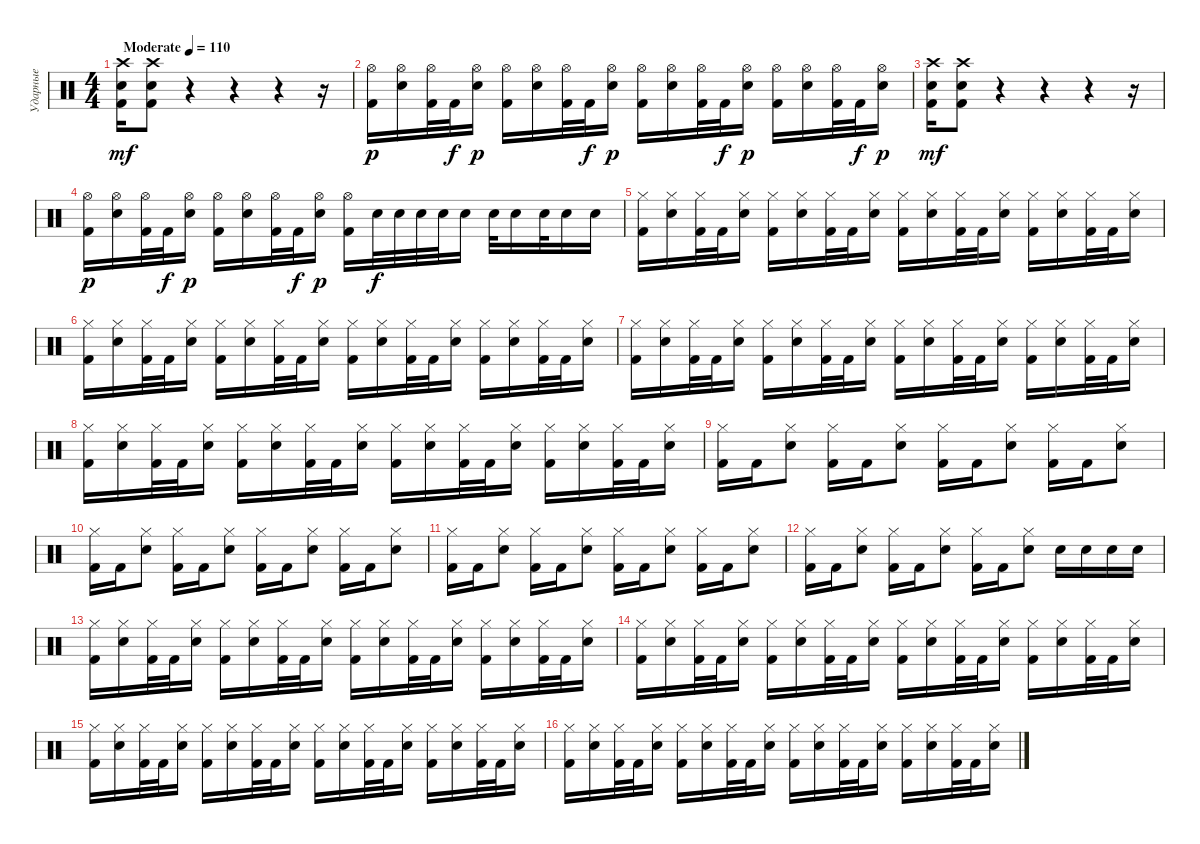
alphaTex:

\track ("Ударные" "Ударные") {instrument percussion}
\staff {score}
\articulation defaults
\ts (4 4)
\tempo (110 "Moderate")
\clef neutral
\ks c
("Crash high (hit)" "Electric Snare (hit)" "Kick (hit) 2").16{dy mf} ("Crash high (hit)" "Electric Snare (hit)" "Kick (hit) 2").8 r.4 r.4 r.4 r.16 |
("Hi-Hat (open)" "Kick (hit) 2").16{dy p} ("Hi-Hat (open)" "Electric Snare (hit)").16 ("Hi-Hat (open)" "Kick (hit) 2").32 "Kick (hit) 2".32{dy f} ("Hi-Hat (open)" "Electric Snare (hit)").16{dy p} ("Hi-Hat (open)" "Kick (hit) 2").16 ("Hi-Hat (open)" "Electric Snare (hit)").16 ("Hi-Hat (open)" "Kick (hit) 2").32 "Kick (hit) 2".32{dy f} ("Hi-Hat (open)" "Electric Snare (hit)").16{dy p} ("Hi-Hat (open)" "Kick (hit) 2").16 ("Hi-Hat (open)" "Electric Snare (hit)").16 ("Hi-Hat (open)" "Kick (hit) 2").32 "Kick (hit) 2".32{dy f} ("Hi-Hat (open)" "Electric Snare (hit)").16{dy p} ("Hi-Hat (open)" "Kick (hit) 2").16 ("Hi-Hat (open)" "Electric Snare (hit)").16 ("Hi-Hat (open)" "Kick (hit) 2").32 "Kick (hit) 2".32{dy f} ("Hi-Hat (open)" "Electric Snare (hit)").16{dy p} |
("Crash high (hit)" "Electric Snare (hit)" "Kick (hit) 2").16{dy mf} ("Crash high (hit)" "Electric Snare (hit)" "Kick (hit) 2").8 r.4 r.4 r.4 r.16 |
("Hi-Hat (open)" "Kick (hit) 2").16{dy p} ("Hi-Hat (open)" "Electric Snare (hit)").16 ("Hi-Hat (open)" "Kick (hit) 2").32 "Kick (hit) 2".32{dy f} ("Hi-Hat (open)" "Electric Snare (hit)").16{dy p} ("Hi-Hat (open)" "Kick (hit) 2").16 ("Hi-Hat (open)" "Electric Snare (hit)").16 ("Hi-Hat (open)" "Kick (hit) 2").32 "Kick (hit) 2".32{dy f} ("Hi-Hat (open)" "Electric Snare (hit)").16{dy p} ("Hi-Hat (open)" "Kick (hit) 2").16 "Electric Snare (hit)".32{dy f} "Electric Snare (hit)".32 "Electric Snare (hit)".32 "Electric Snare (hit)".32 "Electric Snare (hit)".16 "Electric Snare (hit)".32 "Electric Snare (hit)".16 "Electric Snare (hit)".32 "Electric Snare (hit)".16 "Electric Snare (hit)".16 |
("Hi-Hat (closed)" "Kick (hit) 2").16 ("Hi-Hat (closed)" "Electric Snare (hit)").16 ("Hi-Hat (closed)" "Kick (hit) 2").32 "Kick (hit) 2".32 ("Hi-Hat (closed)" "Electric Snare (hit)").16 ("Hi-Hat (closed)" "Kick (hit) 2").16 ("Hi-Hat (closed)" "Electric Snare (hit)").16 ("Hi-Hat (closed)" "Kick (hit) 2").32 "Kick (hit) 2".32 ("Hi-Hat (closed)" "Electric Snare (hit)").16 ("Hi-Hat (closed)" "Kick (hit) 2").16 ("Hi-Hat (closed)" "Electric Snare (hit)").16 ("Hi-Hat (closed)" "Kick (hit) 2").32 "Kick (hit) 2".32 ("Hi-Hat (closed)" "Electric Snare (hit)").16 ("Hi-Hat (closed)" "Kick (hit) 2").16 ("Hi-Hat (closed)" "Electric Snare (hit)").16 ("Hi-Hat (closed)" "Kick (hit) 2").32 "Kick (hit) 2".32 ("Hi-Hat (closed)" "Electric Snare (hit)").16 |
("Hi-Hat (closed)" "Kick (hit) 2").16 ("Hi-Hat (closed)" "Electric Snare (hit)").16 ("Hi-Hat (closed)" "Kick (hit) 2").32 "Kick (hit) 2".32 ("Hi-Hat (closed)" "Electric Snare (hit)").16 ("Hi-Hat (closed)" "Kick (hit) 2").16 ("Hi-Hat (closed)" "Electric Snare (hit)").16 ("Hi-Hat (closed)" "Kick (hit) 2").32 "Kick (hit) 2".32 ("Hi-Hat (closed)" "Electric Snare (hit)").16 ("Hi-Hat (closed)" "Kick (hit) 2").16 ("Hi-Hat (closed)" "Electric Snare (hit)").16 ("Hi-Hat (closed)" "Kick (hit) 2").32 "Kick (hit) 2".32 ("Hi-Hat (closed)" "Electric Snare (hit)").16 ("Hi-Hat (closed)" "Kick (hit) 2").16 ("Hi-Hat (closed)" "Electric Snare (hit)").16 ("Hi-Hat (closed)" "Kick (hit) 2").32 "Kick (hit) 2".32 ("Hi-Hat (closed)" "Electric Snare (hit)").16 |
("Hi-Hat (closed)" "Kick (hit) 2").16 ("Hi-Hat (closed)" "Electric Snare (hit)").16 ("Hi-Hat (closed)" "Kick (hit) 2").32 "Kick (hit) 2".32 ("Hi-Hat (closed)" "Electric Snare (hit)").16 ("Hi-Hat (closed)" "Kick (hit) 2").16 ("Hi-Hat (closed)" "Electric Snare (hit)").16 ("Hi-Hat (closed)" "Kick (hit) 2").32 "Kick (hit) 2".32 ("Hi-Hat (closed)" "Electric Snare (hit)").16 ("Hi-Hat (closed)" "Kick (hit) 2").16 ("Hi-Hat (closed)" "Electric Snare (hit)").16 ("Hi-Hat (closed)" "Kick (hit) 2").32 "Kick (hit) 2".32 ("Hi-Hat (closed)" "Electric Snare (hit)").16 ("Hi-Hat (closed)" "Kick (hit) 2").16 ("Hi-Hat (closed)" "Electric Snare (hit)").16 ("Hi-Hat (closed)" "Kick (hit) 2").32 "Kick (hit) 2".32 ("Hi-Hat (closed)" "Electric Snare (hit)").16 |
("Hi-Hat (closed)" "Kick (hit) 2").16 ("Hi-Hat (closed)" "Electric Snare (hit)").16 ("Hi-Hat (closed)" "Kick (hit) 2").32 "Kick (hit) 2".32 ("Hi-Hat (closed)" "Electric Snare (hit)").16 ("Hi-Hat (closed)" "Kick (hit) 2").16 ("Hi-Hat (closed)" "Electric Snare (hit)").16 ("Hi-Hat (closed)" "Kick (hit) 2").32 "Kick (hit) 2".32 ("Hi-Hat (closed)" "Electric Snare (hit)").16 ("Hi-Hat (closed)" "Kick (hit) 2").16 ("Hi-Hat (closed)" "Electric Snare (hit)").16 ("Hi-Hat (closed)" "Kick (hit) 2").32 "Kick (hit) 2".32 ("Hi-Hat (closed)" "Electric Snare (hit)").16 ("Hi-Hat (closed)" "Kick (hit) 2").16 ("Hi-Hat (closed)" "Electric Snare (hit)").16 ("Hi-Hat (closed)" "Kick (hit) 2").32 "Kick (hit) 2".32 ("Hi-Hat (closed)" "Electric Snare (hit)").16 |
("Hi-Hat (closed)" "Kick (hit) 2").16 "Kick (hit) 2".16 ("Hi-Hat (closed)" "Electric Snare (hit)").8 ("Hi-Hat (closed)" "Kick (hit) 2").16 "Kick (hit) 2".16 ("Hi-Hat (closed)" "Electric Snare (hit)").8 ("Hi-Hat (closed)" "Kick (hit) 2").16 "Kick (hit) 2".16 ("Hi-Hat (closed)" "Electric Snare (hit)").8 ("Hi-Hat (closed)" "Kick (hit) 2").16 "Kick (hit) 2".16 ("Hi-Hat (closed)" "Electric Snare (hit)").8 |
("Hi-Hat (closed)" "Kick (hit) 2").16 "Kick (hit) 2".16 ("Hi-Hat (closed)" "Electric Snare (hit)").8 ("Hi-Hat (closed)" "Kick (hit) 2").16 "Kick (hit) 2".16 ("Hi-Hat (closed)" "Electric Snare (hit)").8 ("Hi-Hat (closed)" "Kick (hit) 2").16 "Kick (hit) 2".16 ("Hi-Hat (closed)" "Electric Snare (hit)").8 ("Hi-Hat (closed)" "Kick (hit) 2").16 "Kick (hit) 2".16 ("Hi-Hat (closed)" "Electric Snare (hit)").8 |
("Hi-Hat (closed)" "Kick (hit) 2").16 "Kick (hit) 2".16 ("Hi-Hat (closed)" "Electric Snare (hit)").8 ("Hi-Hat (closed)" "Kick (hit) 2").16 "Kick (hit) 2".16 ("Hi-Hat (closed)" "Electric Snare (hit)").8 ("Hi-Hat (closed)" "Kick (hit) 2").16 "Kick (hit) 2".16 ("Hi-Hat (closed)" "Electric Snare (hit)").8 ("Hi-Hat (closed)" "Kick (hit) 2").16 "Kick (hit) 2".16 ("Hi-Hat (closed)" "Electric Snare (hit)").8 |
("Hi-Hat (closed)" "Kick (hit) 2").16 "Kick (hit) 2".16 ("Hi-Hat (closed)" "Electric Snare (hit)").8 ("Hi-Hat (closed)" "Kick (hit) 2").16 "Kick (hit) 2".16 ("Hi-Hat (closed)" "Electric Snare (hit)").8 ("Hi-Hat (closed)" "Kick (hit) 2").16 "Kick (hit) 2".16 ("Hi-Hat (closed)" "Electric Snare (hit)").8 "Electric Snare (hit)".16 "Electric Snare (hit)".16 "Electric Snare (hit)".16 "Electric Snare (hit)".16 |
("Hi-Hat (closed)" "Kick (hit) 2").16 ("Hi-Hat (closed)" "Electric Snare (hit)").16 ("Hi-Hat (closed)" "Kick (hit) 2").32 "Kick (hit) 2".32 ("Hi-Hat (closed)" "Electric Snare (hit)").16 ("Hi-Hat (closed)" "Kick (hit) 2").16 ("Hi-Hat (closed)" "Electric Snare (hit)").16 ("Hi-Hat (closed)" "Kick (hit) 2").32 "Kick (hit) 2".32 ("Hi-Hat (closed)" "Electric Snare (hit)").16 ("Hi-Hat (closed)" "Kick (hit) 2").16 ("Hi-Hat (closed)" "Electric Snare (hit)").16 ("Hi-Hat (closed)" "Kick (hit) 2").32 "Kick (hit) 2".32 ("Hi-Hat (closed)" "Electric Snare (hit)").16 ("Hi-Hat (closed)" "Kick (hit) 2").16 ("Hi-Hat (closed)" "Electric Snare (hit)").16 ("Hi-Hat (closed)" "Kick (hit) 2").32 "Kick (hit) 2".32 ("Hi-Hat (closed)" "Electric Snare (hit)").16 |
("Hi-Hat (closed)" "Kick (hit) 2").16 ("Hi-Hat (closed)" "Electric Snare (hit)").16 ("Hi-Hat (closed)" "Kick (hit) 2").32 "Kick (hit) 2".32 ("Hi-Hat (closed)" "Electric Snare (hit)").16 ("Hi-Hat (closed)" "Kick (hit) 2").16 ("Hi-Hat (closed)" "Electric Snare (hit)").16 ("Hi-Hat (closed)" "Kick (hit) 2").32 "Kick (hit) 2".32 ("Hi-Hat (closed)" "Electric Snare (hit)").16 ("Hi-Hat (closed)" "Kick (hit) 2").16 ("Hi-Hat (closed)" "Electric Snare (hit)").16 ("Hi-Hat (closed)" "Kick (hit) 2").32 "Kick (hit) 2".32 ("Hi-Hat (closed)" "Electric Snare (hit)").16 ("Hi-Hat (closed)" "Kick (hit) 2").16 ("Hi-Hat (closed)" "Electric Snare (hit)").16 ("Hi-Hat (closed)" "Kick (hit) 2").32 "Kick (hit) 2".32 ("Hi-Hat (closed)" "Electric Snare (hit)").16 |
("Hi-Hat (closed)" "Kick (hit) 2").16 ("Hi-Hat (closed)" "Electric Snare (hit)").16 ("Hi-Hat (closed)" "Kick (hit) 2").32 "Kick (hit) 2".32 ("Hi-Hat (closed)" "Electric Snare (hit)").16 ("Hi-Hat (closed)" "Kick (hit) 2").16 ("Hi-Hat (closed)" "Electric Snare (hit)").16 ("Hi-Hat (closed)" "Kick (hit) 2").32 "Kick (hit) 2".32 ("Hi-Hat (closed)" "Electric Snare (hit)").16 ("Hi-Hat (closed)" "Kick (hit) 2").16 ("Hi-Hat (closed)" "Electric Snare (hit)").16 ("Hi-Hat (closed)" "Kick (hit) 2").32 "Kick (hit) 2".32 ("Hi-Hat (closed)" "Electric Snare (hit)").16 ("Hi-Hat (closed)" "Kick (hit) 2").16 ("Hi-Hat (closed)" "Electric Snare (hit)").16 ("Hi-Hat (closed)" "Kick (hit) 2").32 "Kick (hit) 2".32 ("Hi-Hat (closed)" "Electric Snare (hit)").16 |
("Hi-Hat (closed)" "Kick (hit) 2").16 ("Hi-Hat (closed)" "Electric Snare (hit)").16 ("Hi-Hat (closed)" "Kick (hit) 2").32 "Kick (hit) 2".32 ("Hi-Hat (closed)" "Electric Snare (hit)").16 ("Hi-Hat (closed)" "Kick (hit) 2").16 ("Hi-Hat (closed)" "Electric Snare (hit)").16 ("Hi-Hat (closed)" "Kick (hit) 2").32 "Kick (hit) 2".32 ("Hi-Hat (closed)" "Electric Snare (hit)").16 ("Hi-Hat (closed)" "Kick (hit) 2").16 ("Hi-Hat (closed)" "Electric Snare (hit)").16 ("Hi-Hat (closed)" "Kick (hit) 2").32 "Kick (hit) 2".32 ("Hi-Hat (closed)" "Electric Snare (hit)").16 ("Hi-Hat (closed)" "Kick (hit) 2").16 ("Hi-Hat (closed)" "Electric Snare (hit)").16 ("Hi-Hat (closed)" "Kick (hit) 2").32 "Kick (hit) 2".32 ("Hi-Hat (closed)" "Electric Snare (hit)").16
